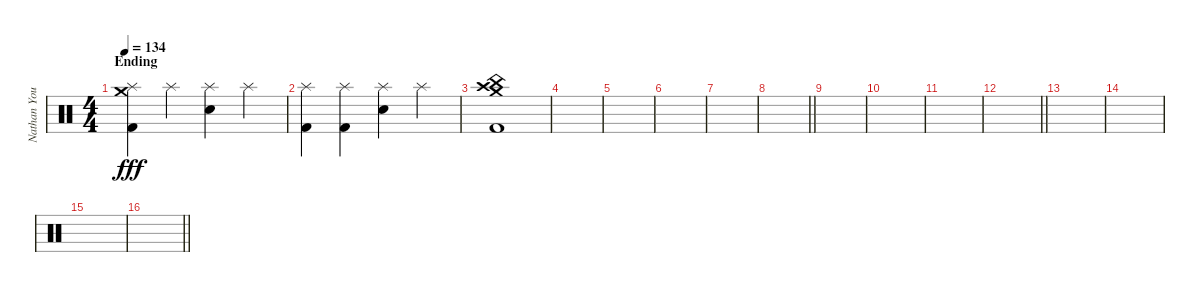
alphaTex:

\track ("Nathan Young" "Nathan You") {instrument percussion}
\staff {score}
\articulation defaults
\ts (4 4)
\section ("" "Ending")
\tempo 134
\clef neutral
\ks c
("Crash medium (hit)" "Splash (hit)" "Kick (hit) 2").4{dy fff} "Splash (hit)".4 ("Splash (hit)" "Electric Snare (hit)").4 "Splash (hit)".4 |
("Splash (hit)" "Kick (hit) 2").4 ("Splash (hit)" "Kick (hit) 2").4 ("Splash (hit)" "Electric Snare (hit)").4 "Splash (hit)".4 |
("Crash medium (hit)" "China (hit)" "Crash high (hit)" "Kick (hit) 2").1 |
|
|
|
|
\barLineRight lightlight
|
|
|
|
\barLineRight lightlight
|
|
|
|
\barLineRight lightlight
